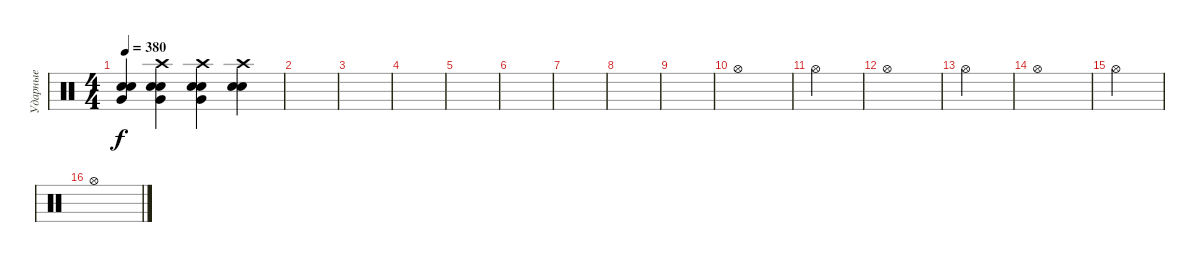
\track ("Ударные" "Ударные") {instrument percussion}
\staff {score}
\articulation defaults
\ts (4 4)
\tempo 380
\clef neutral
\ks c
("Electric Snare (hit)" "Electric Snare (hit)" "Very Low Tom (hit)").4{dy f} ("Electric Snare (hit)" "Electric Snare (hit)" "Crash high (hit)" "Very Low Tom (hit)").4 ("Electric Snare (hit)" "Electric Snare (hit)" "Crash high (hit)" "Very Low Tom (hit)").4 ("Electric Snare (hit)" "Electric Snare (hit)" "Crash high (hit)").4 |
|
|
|
|
|
|
|
|
"Hi-Hat (open)".1 |
"Hi-Hat (open)".2 |
"Hi-Hat (open)".1 |
"Hi-Hat (open)".2 |
"Hi-Hat (open)".1 |
"Hi-Hat (open)".2 |
"Hi-Hat (open)".1
